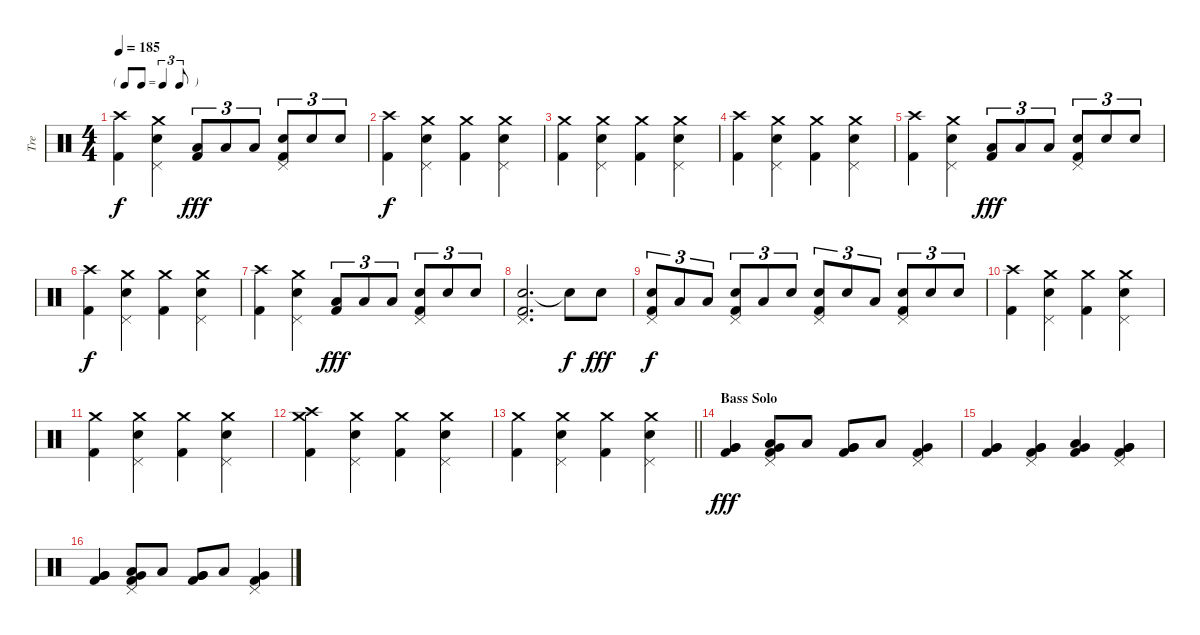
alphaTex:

\track ("Tre" "Tre") {instrument percussion}
\staff {score}
\articulation defaults
\ts (4 4)
\tf triplet8th
\tempo 185
\clef neutral
\ks c
("Crash high (hit)" "Kick (hit) 2").4{dy f} ("Crash medium (hit)" "Snare (hit) 2" "Pedal Hi-Hat (hit)").4 ("Low Tom (hit)" "Kick (hit) 2").8{tu (3 2) dy fff} "Low Tom (hit)".8{tu (3 2)} "Low Tom (hit)".8{tu (3 2)} ("Snare (hit) 2" "Pedal Hi-Hat (hit)" "Kick (hit) 2").8{tu (3 2)} "Snare (hit) 2".8{tu (3 2)} "Snare (hit) 2".8{tu (3 2)} |
("Crash high (hit)" "Kick (hit) 2").4{dy f} ("Crash medium (hit)" "Snare (hit) 2" "Pedal Hi-Hat (hit)").4 ("Crash medium (hit)" "Kick (hit) 2").4 ("Crash medium (hit)" "Snare (hit) 2" "Pedal Hi-Hat (hit)").4 |
("Crash medium (hit)" "Kick (hit) 2").4 ("Crash medium (hit)" "Snare (hit) 2" "Pedal Hi-Hat (hit)").4 ("Crash medium (hit)" "Kick (hit) 2").4 ("Crash medium (hit)" "Snare (hit) 2" "Pedal Hi-Hat (hit)").4 |
("Crash high (hit)" "Kick (hit) 2").4 ("Crash medium (hit)" "Snare (hit) 2" "Pedal Hi-Hat (hit)").4 ("Crash medium (hit)" "Kick (hit) 2").4 ("Crash medium (hit)" "Snare (hit) 2" "Pedal Hi-Hat (hit)").4 |
("Crash high (hit)" "Kick (hit) 2").4 ("Crash medium (hit)" "Snare (hit) 2" "Pedal Hi-Hat (hit)").4 ("Low Tom (hit)" "Kick (hit) 2").8{tu (3 2) dy fff} "Low Tom (hit)".8{tu (3 2)} "Low Tom (hit)".8{tu (3 2)} ("Snare (hit) 2" "Pedal Hi-Hat (hit)" "Kick (hit) 2").8{tu (3 2)} "Snare (hit) 2".8{tu (3 2)} "Snare (hit) 2".8{tu (3 2)} |
("Crash high (hit)" "Kick (hit) 2").4{dy f} ("Crash medium (hit)" "Snare (hit) 2" "Pedal Hi-Hat (hit)").4 ("Crash medium (hit)" "Kick (hit) 2").4 ("Crash medium (hit)" "Snare (hit) 2" "Pedal Hi-Hat (hit)").4 |
("Crash high (hit)" "Kick (hit) 2").4 ("Crash medium (hit)" "Snare (hit) 2" "Pedal Hi-Hat (hit)").4 ("Low Tom (hit)" "Kick (hit) 2").8{tu (3 2) dy fff} "Low Tom (hit)".8{tu (3 2)} "Low Tom (hit)".8{tu (3 2)} ("Snare (hit) 2" "Pedal Hi-Hat (hit)" "Kick (hit) 2").8{tu (3 2)} "Snare (hit) 2".8{tu (3 2)} "Snare (hit) 2".8{tu (3 2)} |
("Snare (hit) 2" "Pedal Hi-Hat (hit)" "Kick (hit) 2").2{d} "Snare (hit)"{t}.8{dy f} "Snare (hit) 2".8{dy fff} |
("Snare (hit) 2" "Pedal Hi-Hat (hit)" "Kick (hit) 2").8{tu (3 2) dy f} "Low Tom (hit)".8{tu (3 2)} "Low Tom (hit)".8{tu (3 2)} ("Snare (hit) 2" "Pedal Hi-Hat (hit)" "Kick (hit) 2").8{tu (3 2)} "Low Tom (hit)".8{tu (3 2)} "Snare (hit) 2".8{tu (3 2)} ("Snare (hit) 2" "Pedal Hi-Hat (hit)" "Kick (hit) 2").8{tu (3 2)} "Snare (hit) 2".8{tu (3 2)} "Low Tom (hit)".8{tu (3 2)} ("Snare (hit) 2" "Pedal Hi-Hat (hit)" "Kick (hit) 2").8{tu (3 2)} "Snare (hit) 2".8{tu (3 2)} "Snare (hit) 2".8{tu (3 2)} |
("Crash high (hit)" "Kick (hit) 2").4 ("Crash medium (hit)" "Snare (hit) 2" "Pedal Hi-Hat (hit)").4 ("Crash medium (hit)" "Kick (hit) 2").4 ("Crash medium (hit)" "Snare (hit) 2" "Pedal Hi-Hat (hit)").4 |
("Crash medium (hit)" "Kick (hit) 2").4 ("Crash medium (hit)" "Snare (hit) 2" "Pedal Hi-Hat (hit)").4 ("Crash medium (hit)" "Kick (hit) 2").4 ("Crash medium (hit)" "Snare (hit) 2" "Pedal Hi-Hat (hit)").4 |
("Crash medium (hit)" "Crash high (hit)" "Kick (hit) 2").4 ("Crash medium (hit)" "Snare (hit) 2" "Pedal Hi-Hat (hit)").4 ("Crash medium (hit)" "Kick (hit) 2").4 ("Crash medium (hit)" "Snare (hit) 2" "Pedal Hi-Hat (hit)").4 |
\barLineRight lightlight
("Crash medium (hit)" "Kick (hit) 2").4 ("Crash medium (hit)" "Snare (hit) 2" "Pedal Hi-Hat (hit)").4 ("Crash medium (hit)" "Kick (hit) 2").4 ("Crash medium (hit)" "Snare (hit) 2" "Pedal Hi-Hat (hit)").4 |
\section ("" "Bass Solo")
("Very Low Tom (hit)" "Very Low Tom (hit)" "Kick (hit) 2").4{dy fff} ("Pedal Hi-Hat (hit)" "Low Tom (hit)" "Very Low Tom (hit)" "Kick (hit) 2").8 "Low Tom (hit)".8 ("Very Low Tom (hit)" "Very Low Tom (hit)" "Kick (hit) 2").8 "Low Tom (hit)".8 ("Pedal Hi-Hat (hit)" "Very Low Tom (hit)" "Kick (hit) 2").4 |
("Very Low Tom (hit)" "Very Low Tom (hit)" "Kick (hit) 2").4 ("Pedal Hi-Hat (hit)" "Very Low Tom (hit)" "Very Low Tom (hit)" "Kick (hit) 2").4 ("Low Tom (hit)" "Very Low Tom (hit)" "Kick (hit) 2").4 ("Pedal Hi-Hat (hit)" "Very Low Tom (hit)" "Very Low Tom (hit)" "Kick (hit) 2").4 |
("Very Low Tom (hit)" "Very Low Tom (hit)" "Kick (hit) 2").4 ("Pedal Hi-Hat (hit)" "Low Tom (hit)" "Very Low Tom (hit)" "Kick (hit) 2").8 "Low Tom (hit)".8 ("Very Low Tom (hit)" "Very Low Tom (hit)" "Kick (hit) 2").8 "Low Tom (hit)".8 ("Pedal Hi-Hat (hit)" "Very Low Tom (hit)" "Kick (hit) 2").4
